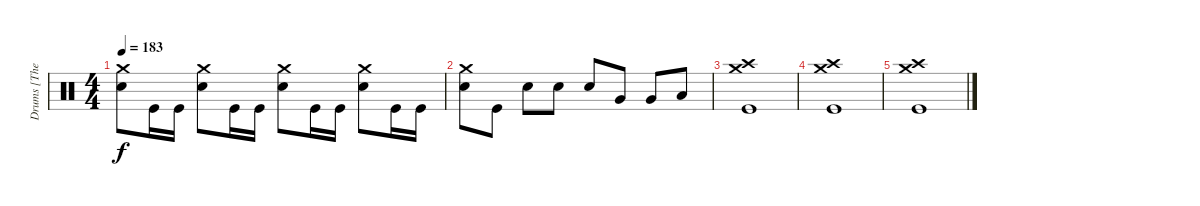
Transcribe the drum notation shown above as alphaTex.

\track ("Drums [The Rev]" "Drums [The") {instrument percussion}
\staff {score}
\articulation defaults
\ts (4 4)
\tempo 183
\clef neutral
\ks c
("Crash medium (hit)" "Snare (hit) 2").8{dy f} "Kick (hit)".16 "Kick (hit)".16 ("Crash medium (hit)" "Snare (hit) 2").8 "Kick (hit)".16 "Kick (hit)".16 ("Crash medium (hit)" "Snare (hit) 2").8 "Kick (hit)".16 "Kick (hit)".16 ("Crash medium (hit)" "Snare (hit) 2").8 "Kick (hit)".16 "Kick (hit)".16 |
("Crash medium (hit)" "Snare (hit) 2").8 "Kick (hit)".8 "Snare (hit) 2".8 "Snare (hit) 2".8 "Snare (hit) 2".8 "Very Low Tom (hit)".8 "Very Low Tom (hit)".8 "Low Floor Tom (hit)".8 |
("Crash high (hit)" "Crash medium (hit)" "Kick (hit)").1 |
("Crash high (hit)" "Crash medium (hit)" "Kick (hit)").1 |
("Crash high (hit)" "Crash medium (hit)" "Kick (hit)").1
